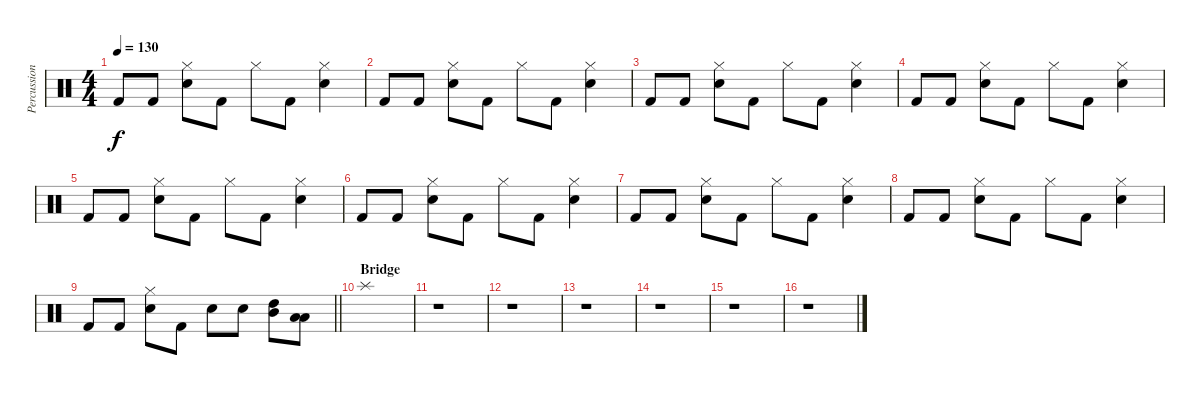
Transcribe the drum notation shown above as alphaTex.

\track ("Percussion" "Percussion") {instrument percussion}
\staff {score}
\articulation defaults
\ts (4 4)
\tempo 130
\clef neutral
\ks c "Kick (hit) 2".8{dy f} "Kick (hit) 2".8
("Hi-Hat (closed)" "Snare (hit) 2").8 "Kick (hit) 2".8 "Hi-Hat (closed)".8 "Kick (hit) 2".8 ("Hi-Hat (closed)" "Snare (hit) 2").4 |
"Kick (hit) 2".8 "Kick (hit) 2".8 ("Hi-Hat (closed)" "Snare (hit) 2").8 "Kick (hit) 2".8 "Hi-Hat (closed)".8 "Kick (hit) 2".8 ("Hi-Hat (closed)" "Snare (hit) 2").4 |
"Kick (hit) 2".8 "Kick (hit) 2".8 ("Hi-Hat (closed)" "Snare (hit) 2").8 "Kick (hit) 2".8 "Hi-Hat (closed)".8 "Kick (hit) 2".8 ("Hi-Hat (closed)" "Snare (hit) 2").4 |
"Kick (hit) 2".8 "Kick (hit) 2".8 ("Hi-Hat (closed)" "Snare (hit) 2").8 "Kick (hit) 2".8 "Hi-Hat (closed)".8 "Kick (hit) 2".8 ("Hi-Hat (closed)" "Snare (hit) 2").4 |
"Kick (hit) 2".8 "Kick (hit) 2".8 ("Hi-Hat (closed)" "Snare (hit) 2").8 "Kick (hit) 2".8 "Hi-Hat (closed)".8 "Kick (hit) 2".8 ("Hi-Hat (closed)" "Snare (hit) 2").4 |
"Kick (hit) 2".8 "Kick (hit) 2".8 ("Hi-Hat (closed)" "Snare (hit) 2").8 "Kick (hit) 2".8 "Hi-Hat (closed)".8 "Kick (hit) 2".8 ("Hi-Hat (closed)" "Snare (hit) 2").4 |
"Kick (hit) 2".8 "Kick (hit) 2".8 ("Hi-Hat (closed)" "Snare (hit) 2").8 "Kick (hit) 2".8 "Hi-Hat (closed)".8 "Kick (hit) 2".8 ("Hi-Hat (closed)" "Snare (hit) 2").4 |
"Kick (hit) 2".8 "Kick (hit) 2".8 ("Hi-Hat (closed)" "Snare (hit) 2").8 "Kick (hit) 2".8 "Hi-Hat (closed)".8 "Kick (hit) 2".8 ("Hi-Hat (closed)" "Snare (hit) 2").4 |
\barLineRight lightlight "Kick (hit) 2".8 "Kick (hit) 2".8
("Hi-Hat (closed)" "Snare (hit) 2").8 "Kick (hit) 2".8 "Snare (hit) 2".8 "Snare (hit) 2".8 ("High Tom (hit)" "Mid Tom (hit)").8 ("Low Tom (hit)" "Low Floor Tom (hit)").8 |
\section ("" "Bridge")
"Splash (hit)".1 |
r.1 |
r.1 |
r.1 |
r.1 |
r.1 |
r.1
